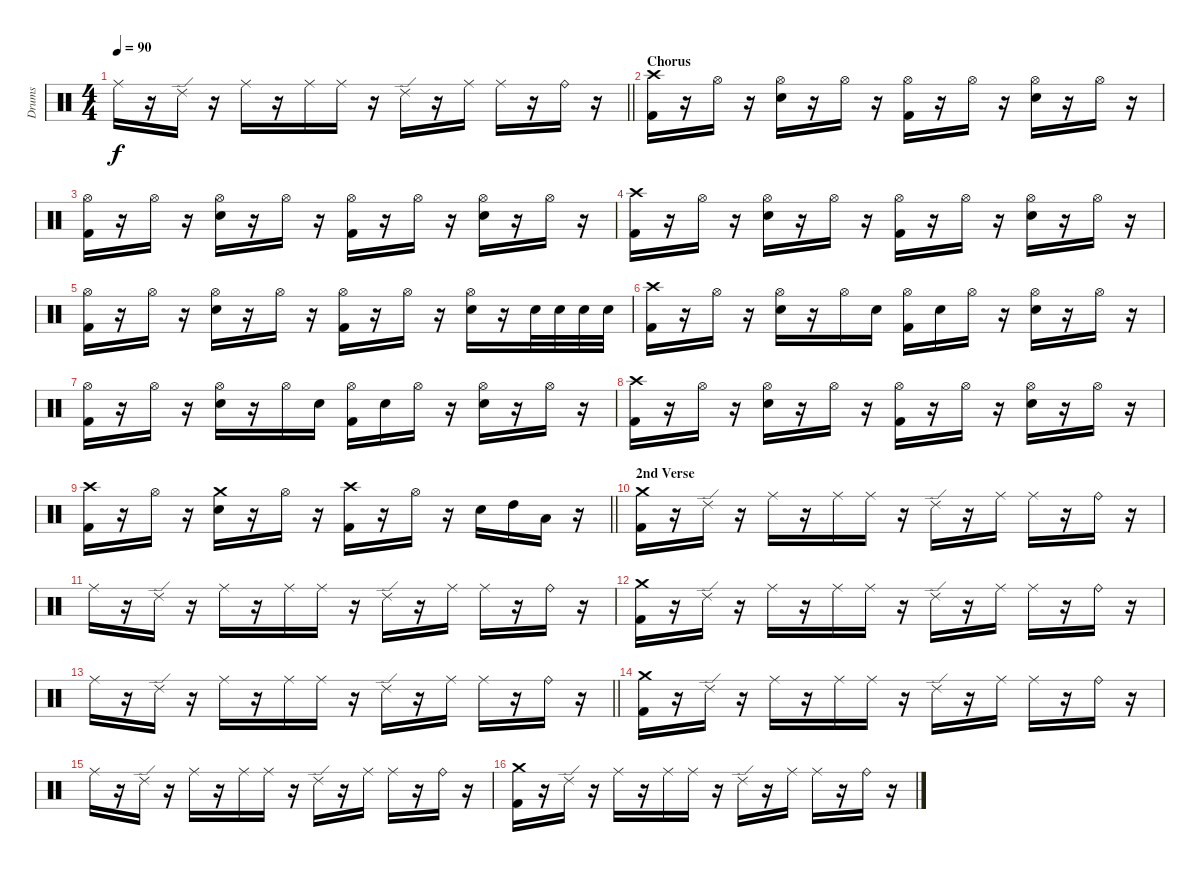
\track ("Drums" "Drums") {instrument percussion}
\staff {score}
\articulation defaults
\ts (4 4)
\tempo 90
\clef neutral
\barLineRight lightlight
\ks c "Ride (middle)".16{dy f}
r.16 "Ride (edge) 2".16 r.16 "Ride (middle)".16 r.16 "Ride (middle)".16 "Ride (middle)".16 r.16 "Ride (edge) 2".16 r.16 "Ride (middle)".16 "Ride (middle)".16 r.16 "Ride (bell)".16 r.16 |
\section ("" "Chorus")
("Crash high (hit)" "Kick (hit) 2").16 r.16 "Hi-Hat (open)".16 r.16 ("Hi-Hat (open)" "Snare (hit) 2").16 r.16 "Hi-Hat (open)".16 r.16 ("Hi-Hat (open)" "Kick (hit) 2").16 r.16 "Hi-Hat (open)".16 r.16 ("Hi-Hat (open)" "Snare (hit) 2").16 r.16 "Hi-Hat (open)".16 r.16 |
("Hi-Hat (open)" "Kick (hit) 2").16 r.16 "Hi-Hat (open)".16 r.16 ("Hi-Hat (open)" "Snare (hit) 2").16 r.16 "Hi-Hat (open)".16 r.16 ("Hi-Hat (open)" "Kick (hit) 2").16 r.16 "Hi-Hat (open)".16 r.16 ("Hi-Hat (open)" "Snare (hit) 2").16 r.16 "Hi-Hat (open)".16 r.16 |
("Crash high (hit)" "Kick (hit) 2").16 r.16 "Hi-Hat (open)".16 r.16 ("Hi-Hat (open)" "Snare (hit) 2").16 r.16 "Hi-Hat (open)".16 r.16 ("Hi-Hat (open)" "Kick (hit) 2").16 r.16 "Hi-Hat (open)".16 r.16 ("Hi-Hat (open)" "Snare (hit) 2").16 r.16 "Hi-Hat (open)".16 r.16 |
("Hi-Hat (open)" "Kick (hit) 2").16 r.16 "Hi-Hat (open)".16 r.16 ("Hi-Hat (open)" "Snare (hit) 2").16 r.16 "Hi-Hat (open)".16 r.16 ("Hi-Hat (open)" "Kick (hit) 2").16 r.16 "Hi-Hat (open)".16 r.16 ("Hi-Hat (open)" "Snare (hit) 2").16 r.16 "Snare (hit) 2".32 "Snare (hit) 2".32 "Snare (hit) 2".32 "Snare (hit) 2".32 |
("Crash high (hit)" "Kick (hit) 2").16 r.16 "Hi-Hat (open)".16 r.16 ("Hi-Hat (open)" "Snare (hit) 2").16 r.16 "Hi-Hat (open)".16 "Snare (hit) 2".16 ("Hi-Hat (open)" "Kick (hit) 2").16 "Snare (hit) 2".16 "Hi-Hat (open)".16 r.16 ("Hi-Hat (open)" "Snare (hit) 2").16 r.16 "Hi-Hat (open)".16 r.16 |
("Hi-Hat (open)" "Kick (hit) 2").16 r.16 "Hi-Hat (open)".16 r.16 ("Hi-Hat (open)" "Snare (hit) 2").16 r.16 "Hi-Hat (open)".16 "Snare (hit) 2".16 ("Hi-Hat (open)" "Kick (hit) 2").16 "Snare (hit) 2".16 "Hi-Hat (open)".16 r.16 ("Hi-Hat (open)" "Snare (hit) 2").16 r.16 "Hi-Hat (open)".16 r.16 |
("Crash high (hit)" "Kick (hit) 2").16 r.16 "Hi-Hat (open)".16 r.16 ("Hi-Hat (open)" "Snare (hit) 2").16 r.16 "Hi-Hat (open)".16 r.16 ("Hi-Hat (open)" "Kick (hit) 2").16 r.16 "Hi-Hat (open)".16 r.16 ("Hi-Hat (open)" "Snare (hit) 2").16 r.16 "Hi-Hat (open)".16 r.16 |
\barLineRight lightlight
("Crash high (hit)" "Kick (hit) 2").16 r.16 "Hi-Hat (open)".16 r.16 ("Crash medium (hit)" "Snare (hit) 2").16 r.16 "Hi-Hat (open)".16 r.16 ("Crash high (hit)" "Kick (hit) 2").16 r.16 "Hi-Hat (open)".16 r.16 "Snare (hit) 2".16 "High Tom (hit)".16 "Low Tom (hit)".16 r.16 |
\section ("" "2nd Verse")
("Crash medium (hit)" "Kick (hit) 2").16 r.16 "Ride (edge) 2".16 r.16 "Ride (middle)".16 r.16 "Ride (middle)".16 "Ride (middle)".16 r.16 "Ride (edge) 2".16 r.16 "Ride (middle)".16 "Ride (middle)".16 r.16 "Ride (bell)".16 r.16 |
"Ride (middle)".16 r.16 "Ride (edge) 2".16 r.16 "Ride (middle)".16 r.16 "Ride (middle)".16 "Ride (middle)".16 r.16 "Ride (edge) 2".16 r.16 "Ride (middle)".16 "Ride (middle)".16 r.16 "Ride (bell)".16 r.16 |
("Crash medium (hit)" "Kick (hit) 2").16 r.16 "Ride (edge) 2".16 r.16 "Ride (middle)".16 r.16 "Ride (middle)".16 "Ride (middle)".16 r.16 "Ride (edge) 2".16 r.16 "Ride (middle)".16 "Ride (middle)".16 r.16 "Ride (bell)".16 r.16 |
\barLineRight lightlight "Ride (middle)".16
r.16 "Ride (edge) 2".16 r.16 "Ride (middle)".16 r.16 "Ride (middle)".16 "Ride (middle)".16 r.16 "Ride (edge) 2".16 r.16 "Ride (middle)".16 "Ride (middle)".16 r.16 "Ride (bell)".16 r.16 |
("Crash medium (hit)" "Kick (hit) 2").16 r.16 "Ride (edge) 2".16 r.16 "Ride (middle)".16 r.16 "Ride (middle)".16 "Ride (middle)".16 r.16 "Ride (edge) 2".16 r.16 "Ride (middle)".16 "Ride (middle)".16 r.16 "Ride (bell)".16 r.16 |
"Ride (middle)".16 r.16 "Ride (edge) 2".16 r.16 "Ride (middle)".16 r.16 "Ride (middle)".16 "Ride (middle)".16 r.16 "Ride (edge) 2".16 r.16 "Ride (middle)".16 "Ride (middle)".16 r.16 "Ride (bell)".16 r.16 |
("Crash medium (hit)" "Kick (hit) 2").16 r.16 "Ride (edge) 2".16 r.16 "Ride (middle)".16 r.16 "Ride (middle)".16 "Ride (middle)".16 r.16 "Ride (edge) 2".16 r.16 "Ride (middle)".16 "Ride (middle)".16 r.16 "Ride (bell)".16 r.16
